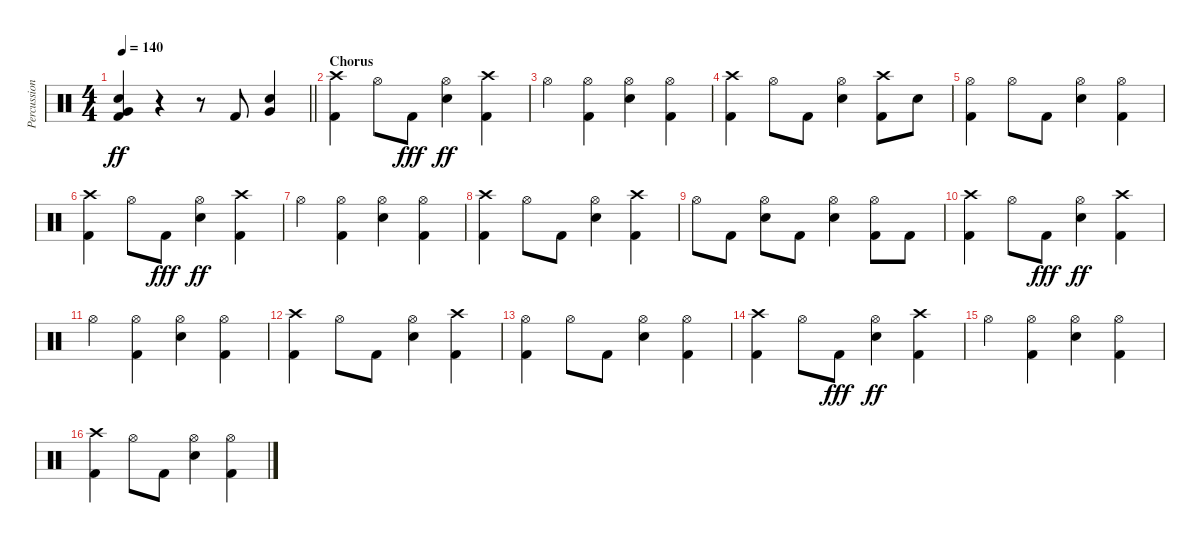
\track ("Percussion" "Percussion") {instrument percussion}
\staff {score}
\articulation defaults
\ts (4 4)
\tempo 140
\clef neutral
\barLineRight lightlight
\ks c
("Snare (hit) 2" "Very Low Tom (hit)" "Kick (hit) 2").4{dy ff} r.4 r.8 "Kick (hit) 2".8 ("Snare (hit) 2" "Very Low Tom (hit)").4 |
\section ("" "Chorus")
("Crash high (hit)" "Kick (hit) 2").4 "Hi-Hat (open)".8 "Kick (hit) 2".8{dy fff} ("Hi-Hat (open)" "Snare (hit) 2").4{dy ff} ("Crash high (hit)" "Kick (hit) 2").4 |
"Hi-Hat (open)".4 ("Hi-Hat (open)" "Kick (hit) 2").4 ("Hi-Hat (open)" "Snare (hit) 2").4 ("Hi-Hat (open)" "Kick (hit) 2").4 |
("Crash high (hit)" "Kick (hit) 2").4 "Hi-Hat (open)".8 "Kick (hit) 2".8 ("Hi-Hat (open)" "Snare (hit) 2").4 ("Crash high (hit)" "Kick (hit) 2").8 "Snare (hit) 2".8 |
("Hi-Hat (open)" "Kick (hit) 2").4 "Hi-Hat (open)".8 "Kick (hit) 2".8 ("Hi-Hat (open)" "Snare (hit) 2").4 ("Hi-Hat (open)" "Kick (hit) 2").4 |
("Crash high (hit)" "Kick (hit) 2").4 "Hi-Hat (open)".8 "Kick (hit) 2".8{dy fff} ("Hi-Hat (open)" "Snare (hit) 2").4{dy ff} ("Crash high (hit)" "Kick (hit) 2").4 |
"Hi-Hat (open)".4 ("Hi-Hat (open)" "Kick (hit) 2").4 ("Hi-Hat (open)" "Snare (hit) 2").4 ("Hi-Hat (open)" "Kick (hit) 2").4 |
("Crash high (hit)" "Kick (hit) 2").4 "Hi-Hat (open)".8 "Kick (hit) 2".8 ("Hi-Hat (open)" "Snare (hit) 2").4 ("Crash high (hit)" "Kick (hit) 2").4 |
"Hi-Hat (open)".8 "Kick (hit) 2".8 ("Hi-Hat (open)" "Snare (hit) 2").8 "Kick (hit) 2".8 ("Hi-Hat (open)" "Snare (hit) 2").4 ("Hi-Hat (open)" "Kick (hit) 2").8 "Kick (hit) 2".8 |
("Crash high (hit)" "Kick (hit) 2").4 "Hi-Hat (open)".8 "Kick (hit) 2".8{dy fff} ("Hi-Hat (open)" "Snare (hit) 2").4{dy ff} ("Crash high (hit)" "Kick (hit) 2").4 |
"Hi-Hat (open)".4 ("Hi-Hat (open)" "Kick (hit) 2").4 ("Hi-Hat (open)" "Snare (hit) 2").4 ("Hi-Hat (open)" "Kick (hit) 2").4 |
("Crash high (hit)" "Kick (hit) 2").4 "Hi-Hat (open)".8 "Kick (hit) 2".8 ("Hi-Hat (open)" "Snare (hit) 2").4 ("Crash high (hit)" "Kick (hit) 2").4 |
("Hi-Hat (open)" "Kick (hit) 2").4 "Hi-Hat (open)".8 "Kick (hit) 2".8 ("Hi-Hat (open)" "Snare (hit) 2").4 ("Hi-Hat (open)" "Kick (hit) 2").4 |
("Crash high (hit)" "Kick (hit) 2").4 "Hi-Hat (open)".8 "Kick (hit) 2".8{dy fff} ("Hi-Hat (open)" "Snare (hit) 2").4{dy ff} ("Crash high (hit)" "Kick (hit) 2").4 |
"Hi-Hat (open)".4 ("Hi-Hat (open)" "Kick (hit) 2").4 ("Hi-Hat (open)" "Snare (hit) 2").4 ("Hi-Hat (open)" "Kick (hit) 2").4 |
("Crash high (hit)" "Kick (hit) 2").4 "Hi-Hat (open)".8 "Kick (hit) 2".8 ("Hi-Hat (open)" "Snare (hit) 2").4 ("Hi-Hat (open)" "Kick (hit) 2").4
